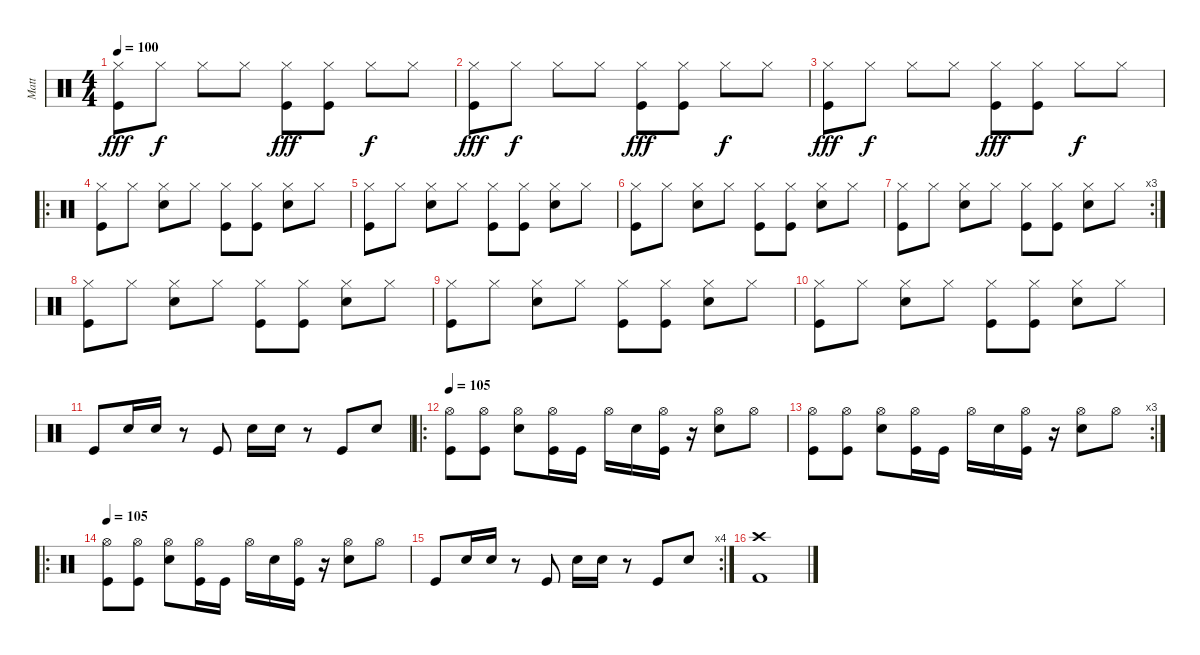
\track ("Matt" "Matt") {instrument percussion}
\staff {score}
\articulation defaults
\ts (4 4)
\tempo 100
\clef neutral
\ks c
("Hi-Hat (closed)" "Kick (hit)").8{dy fff} "Hi-Hat (closed)".8{dy f} "Hi-Hat (closed)".8 "Hi-Hat (closed)".8 ("Hi-Hat (closed)" "Kick (hit)").8{dy fff} ("Hi-Hat (closed)" "Kick (hit)").8 "Hi-Hat (closed)".8{dy f} "Hi-Hat (closed)".8 |
("Hi-Hat (closed)" "Kick (hit)").8{dy fff} "Hi-Hat (closed)".8{dy f} "Hi-Hat (closed)".8 "Hi-Hat (closed)".8 ("Hi-Hat (closed)" "Kick (hit)").8{dy fff} ("Hi-Hat (closed)" "Kick (hit)").8 "Hi-Hat (closed)".8{dy f} "Hi-Hat (closed)".8 |
("Hi-Hat (closed)" "Kick (hit)").8{dy fff} "Hi-Hat (closed)".8{dy f} "Hi-Hat (closed)".8 "Hi-Hat (closed)".8 ("Hi-Hat (closed)" "Kick (hit)").8{dy fff} ("Hi-Hat (closed)" "Kick (hit)").8 "Hi-Hat (closed)".8{dy f} "Hi-Hat (closed)".8 |
\ro
("Hi-Hat (closed)" "Kick (hit)").8 "Hi-Hat (closed)".8 ("Hi-Hat (closed)" "Electric Snare (hit)").8 "Hi-Hat (closed)".8 ("Hi-Hat (closed)" "Kick (hit)").8 ("Hi-Hat (closed)" "Kick (hit)").8 ("Hi-Hat (closed)" "Electric Snare (hit)").8 "Hi-Hat (closed)".8 |
("Hi-Hat (closed)" "Kick (hit)").8 "Hi-Hat (closed)".8 ("Hi-Hat (closed)" "Electric Snare (hit)").8 "Hi-Hat (closed)".8 ("Hi-Hat (closed)" "Kick (hit)").8 ("Hi-Hat (closed)" "Kick (hit)").8 ("Hi-Hat (closed)" "Electric Snare (hit)").8 "Hi-Hat (closed)".8 |
("Hi-Hat (closed)" "Kick (hit)").8 "Hi-Hat (closed)".8 ("Hi-Hat (closed)" "Electric Snare (hit)").8 "Hi-Hat (closed)".8 ("Hi-Hat (closed)" "Kick (hit)").8 ("Hi-Hat (closed)" "Kick (hit)").8 ("Hi-Hat (closed)" "Electric Snare (hit)").8 "Hi-Hat (closed)".8 |
\rc 3
("Hi-Hat (closed)" "Kick (hit)").8 "Hi-Hat (closed)".8 ("Hi-Hat (closed)" "Electric Snare (hit)").8 "Hi-Hat (closed)".8 ("Hi-Hat (closed)" "Kick (hit)").8 ("Hi-Hat (closed)" "Kick (hit)").8 ("Hi-Hat (closed)" "Electric Snare (hit)").8 "Hi-Hat (closed)".8 |
("Hi-Hat (closed)" "Kick (hit)").8 "Hi-Hat (closed)".8 ("Hi-Hat (closed)" "Electric Snare (hit)").8 "Hi-Hat (closed)".8 ("Hi-Hat (closed)" "Kick (hit)").8 ("Hi-Hat (closed)" "Kick (hit)").8 ("Hi-Hat (closed)" "Electric Snare (hit)").8 "Hi-Hat (closed)".8 |
("Hi-Hat (closed)" "Kick (hit)").8 "Hi-Hat (closed)".8 ("Hi-Hat (closed)" "Electric Snare (hit)").8 "Hi-Hat (closed)".8 ("Hi-Hat (closed)" "Kick (hit)").8 ("Hi-Hat (closed)" "Kick (hit)").8 ("Hi-Hat (closed)" "Electric Snare (hit)").8 "Hi-Hat (closed)".8 |
("Hi-Hat (closed)" "Kick (hit)").8 "Hi-Hat (closed)".8 ("Hi-Hat (closed)" "Electric Snare (hit)").8 "Hi-Hat (closed)".8 ("Hi-Hat (closed)" "Kick (hit)").8 ("Hi-Hat (closed)" "Kick (hit)").8 ("Hi-Hat (closed)" "Electric Snare (hit)").8 "Hi-Hat (closed)".8 |
"Kick (hit)".8 "Snare (hit) 2".16 "Snare (hit) 2".16 r.8 "Kick (hit)".8 "Snare (hit) 2".16 "Snare (hit) 2".16 r.8 "Kick (hit)".8 "Snare (hit) 2".8 |
\ro
\tempo 105
("Hi-Hat (open)" "Kick (hit)").8 ("Hi-Hat (open)" "Kick (hit)").8 ("Hi-Hat (open)" "Snare (hit) 2").8 ("Hi-Hat (open)" "Kick (hit)").16 "Kick (hit)".16 "Hi-Hat (open)".16 "Snare (hit) 2".16 ("Hi-Hat (open)" "Kick (hit)").16 r.16 ("Hi-Hat (open)" "Snare (hit) 2").8 "Hi-Hat (open)".8 |
\rc 3
("Hi-Hat (open)" "Kick (hit)").8 ("Hi-Hat (open)" "Kick (hit)").8 ("Hi-Hat (open)" "Snare (hit) 2").8 ("Hi-Hat (open)" "Kick (hit)").16 "Kick (hit)".16 "Hi-Hat (open)".16 "Snare (hit) 2".16 ("Hi-Hat (open)" "Kick (hit)").16 r.16 ("Hi-Hat (open)" "Snare (hit) 2").8 "Hi-Hat (open)".8 |
\ro
\tempo 105
("Hi-Hat (open)" "Kick (hit)").8 ("Hi-Hat (open)" "Kick (hit)").8 ("Hi-Hat (open)" "Snare (hit) 2").8 ("Hi-Hat (open)" "Kick (hit)").16 "Kick (hit)".16 "Hi-Hat (open)".16 "Snare (hit) 2".16 ("Hi-Hat (open)" "Kick (hit)").16 r.16 ("Hi-Hat (open)" "Snare (hit) 2").8 "Hi-Hat (open)".8 |
\rc 4 "Kick (hit)".8 "Snare (hit) 2".16 "Snare (hit) 2".16
r.8 "Kick (hit)".8 "Snare (hit) 2".16 "Snare (hit) 2".16 r.8 "Kick (hit)".8 "Snare (hit) 2".8 |
("Crash high (hit)" "Kick (hit) 2").1
